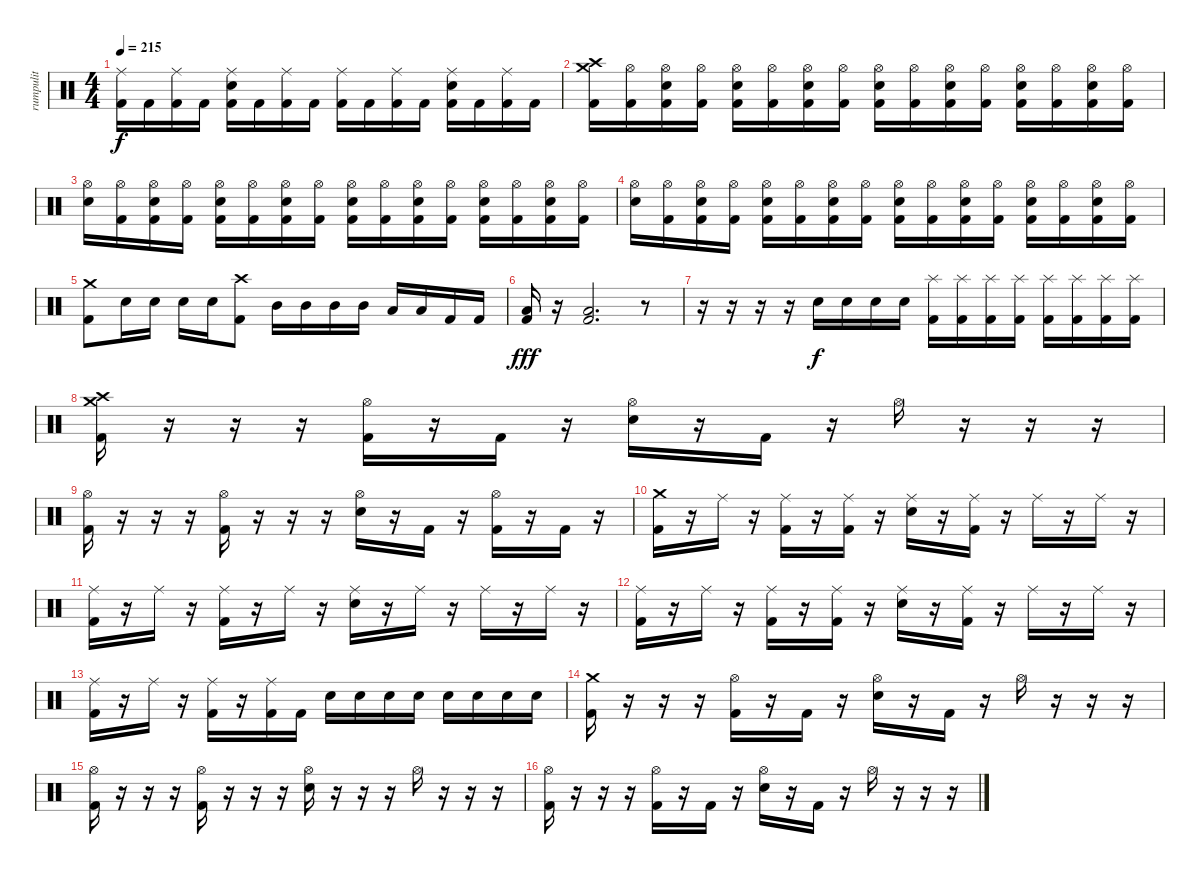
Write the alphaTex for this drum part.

\track ("rumpulit" "rumpulit") {instrument percussion}
\staff {score}
\articulation defaults
\ts (4 4)
\tempo 215
\clef neutral
\ks c
("Ride (middle)" "Kick (hit) 2").16{dy f} "Kick (hit) 2".16 ("Ride (middle)" "Kick (hit) 2").16 "Kick (hit) 2".16 ("Ride (middle)" "Kick (hit) 2" "Electric Snare (hit)").16 "Kick (hit) 2".16 ("Ride (middle)" "Kick (hit) 2").16 "Kick (hit) 2".16 ("Ride (middle)" "Kick (hit) 2").16 "Kick (hit) 2".16 ("Ride (middle)" "Kick (hit) 2").16 "Kick (hit) 2".16 ("Ride (middle)" "Kick (hit) 2" "Electric Snare (hit)").16 "Kick (hit) 2".16 ("Ride (middle)" "Kick (hit) 2").16 "Kick (hit) 2".16 |
("Crash high (hit)" "Kick (hit) 2" "Crash medium (hit)").16 ("Hi-Hat (open)" "Kick (hit) 2").16 ("Hi-Hat (open)" "Electric Snare (hit)" "Kick (hit) 2").16 ("Hi-Hat (open)" "Kick (hit) 2").16 ("Hi-Hat (open)" "Electric Snare (hit)" "Kick (hit) 2").16 ("Hi-Hat (open)" "Kick (hit) 2").16 ("Hi-Hat (open)" "Electric Snare (hit)" "Kick (hit) 2").16 ("Hi-Hat (open)" "Kick (hit) 2").16 ("Hi-Hat (open)" "Electric Snare (hit)" "Kick (hit) 2").16 ("Hi-Hat (open)" "Kick (hit) 2").16 ("Hi-Hat (open)" "Electric Snare (hit)" "Kick (hit) 2").16 ("Hi-Hat (open)" "Kick (hit) 2").16 ("Hi-Hat (open)" "Electric Snare (hit)" "Kick (hit) 2").16 ("Hi-Hat (open)" "Kick (hit) 2").16 ("Hi-Hat (open)" "Electric Snare (hit)" "Kick (hit) 2").16 ("Hi-Hat (open)" "Kick (hit) 2").16 |
("Hi-Hat (open)" "Electric Snare (hit)").16 ("Hi-Hat (open)" "Kick (hit) 2").16 ("Hi-Hat (open)" "Electric Snare (hit)" "Kick (hit) 2").16 ("Hi-Hat (open)" "Kick (hit) 2").16 ("Hi-Hat (open)" "Electric Snare (hit)" "Kick (hit) 2").16 ("Hi-Hat (open)" "Kick (hit) 2").16 ("Hi-Hat (open)" "Electric Snare (hit)" "Kick (hit) 2").16 ("Hi-Hat (open)" "Kick (hit) 2").16 ("Hi-Hat (open)" "Electric Snare (hit)" "Kick (hit) 2").16 ("Hi-Hat (open)" "Kick (hit) 2").16 ("Hi-Hat (open)" "Electric Snare (hit)" "Kick (hit) 2").16 ("Hi-Hat (open)" "Kick (hit) 2").16 ("Hi-Hat (open)" "Electric Snare (hit)" "Kick (hit) 2").16 ("Hi-Hat (open)" "Kick (hit) 2").16 ("Hi-Hat (open)" "Electric Snare (hit)" "Kick (hit) 2").16 ("Hi-Hat (open)" "Kick (hit) 2").16 |
("Hi-Hat (open)" "Electric Snare (hit)").16 ("Hi-Hat (open)" "Kick (hit) 2").16 ("Hi-Hat (open)" "Electric Snare (hit)" "Kick (hit) 2").16 ("Hi-Hat (open)" "Kick (hit) 2").16 ("Hi-Hat (open)" "Electric Snare (hit)" "Kick (hit) 2").16 ("Hi-Hat (open)" "Kick (hit) 2").16 ("Hi-Hat (open)" "Electric Snare (hit)" "Kick (hit) 2").16 ("Hi-Hat (open)" "Kick (hit) 2").16 ("Hi-Hat (open)" "Electric Snare (hit)" "Kick (hit) 2").16 ("Hi-Hat (open)" "Kick (hit) 2").16 ("Hi-Hat (open)" "Electric Snare (hit)" "Kick (hit) 2").16 ("Hi-Hat (open)" "Kick (hit) 2").16 ("Hi-Hat (open)" "Electric Snare (hit)" "Kick (hit) 2").16 ("Hi-Hat (open)" "Kick (hit) 2").16 ("Hi-Hat (open)" "Electric Snare (hit)" "Kick (hit) 2").16 ("Hi-Hat (open)" "Kick (hit) 2").16 |
("Crash medium (hit)" "Kick (hit) 2").8 "Electric Snare (hit)".16 "Electric Snare (hit)".16 "Electric Snare (hit)".16 "Electric Snare (hit)".16 ("Crash high (hit)" "Kick (hit) 2").8 "Mid Tom (hit)".16 "Mid Tom (hit)".16 "Mid Tom (hit)".16 "Mid Tom (hit)".16 "Low Tom (hit)".16 "Low Tom (hit)".16 "Kick (hit) 2".16 "Kick (hit) 2".16 |
("Low Floor Tom (hit)" "Kick (hit) 2").16{dy fff} r.16 ("Low Floor Tom (hit)" "Kick (hit) 2").2{d} r.8 |
r.16 r.16 r.16 r.16 "Electric Snare (hit)".16{dy f} "Electric Snare (hit)".16 "Electric Snare (hit)".16 "Electric Snare (hit)".16 ("Splash (hit)" "Kick (hit) 2").16 ("Splash (hit)" "Kick (hit) 2").16 ("Splash (hit)" "Kick (hit) 2").16 ("Splash (hit)" "Kick (hit) 2").16 ("Splash (hit)" "Kick (hit) 2").16 ("Splash (hit)" "Kick (hit) 2").16 ("Splash (hit)" "Kick (hit) 2").16 ("Splash (hit)" "Kick (hit) 2").16 |
("Crash medium (hit)" "Kick (hit) 2" "Crash high (hit)").16 r.16 r.16 r.16 ("Hi-Hat (open)" "Kick (hit) 2").16 r.16 "Kick (hit) 2".16 r.16 ("Hi-Hat (open)" "Electric Snare (hit)").16 r.16 "Kick (hit) 2".16 r.16 "Hi-Hat (open)".16 r.16 r.16 r.16 |
("Hi-Hat (open)" "Kick (hit) 2").16 r.16 r.16 r.16 ("Hi-Hat (open)" "Kick (hit) 2").16 r.16 r.16 r.16 ("Hi-Hat (open)" "Electric Snare (hit)").16 r.16 "Kick (hit) 2".16 r.16 ("Hi-Hat (open)" "Kick (hit) 2").16 r.16 "Kick (hit) 2".16 r.16 |
("Crash medium (hit)" "Kick (hit) 2").16 r.16 "Ride (middle)".16 r.16 ("Ride (middle)" "Kick (hit) 2").16 r.16 ("Ride (middle)" "Kick (hit) 2").16 r.16 ("Ride (middle)" "Electric Snare (hit)").16 r.16 ("Ride (middle)" "Kick (hit) 2").16 r.16 "Ride (middle)".16 r.16 "Ride (middle)".16 r.16 |
("Ride (middle)" "Kick (hit) 2").16 r.16 "Ride (middle)".16 r.16 ("Ride (middle)" "Kick (hit) 2").16 r.16 "Ride (middle)".16 r.16 ("Ride (middle)" "Electric Snare (hit)").16 r.16 "Ride (middle)".16 r.16 "Ride (middle)".16 r.16 "Ride (middle)".16 r.16 |
("Ride (middle)" "Kick (hit) 2").16 r.16 "Ride (middle)".16 r.16 ("Ride (middle)" "Kick (hit) 2").16 r.16 ("Ride (middle)" "Kick (hit) 2").16 r.16 ("Ride (middle)" "Electric Snare (hit)").16 r.16 ("Ride (middle)" "Kick (hit) 2").16 r.16 "Ride (middle)".16 r.16 "Ride (middle)".16 r.16 |
("Ride (middle)" "Kick (hit) 2").16 r.16 "Ride (middle)".16 r.16 ("Ride (middle)" "Kick (hit) 2").16 r.16 ("Ride (middle)" "Kick (hit) 2").16 "Kick (hit) 2".16 "Electric Snare (hit)".16 "Electric Snare (hit)".16 "Electric Snare (hit)".16 "Electric Snare (hit)".16 "Electric Snare (hit)".16 "Electric Snare (hit)".16 "Electric Snare (hit)".16 "Electric Snare (hit)".16 |
("Crash medium (hit)" "Kick (hit) 2").16 r.16 r.16 r.16 ("Hi-Hat (open)" "Kick (hit) 2").16 r.16 "Kick (hit) 2".16 r.16 ("Hi-Hat (open)" "Electric Snare (hit)").16 r.16 "Kick (hit) 2".16 r.16 "Hi-Hat (open)".16 r.16 r.16 r.16 |
("Hi-Hat (open)" "Kick (hit) 2").16 r.16 r.16 r.16 ("Hi-Hat (open)" "Kick (hit) 2").16 r.16 r.16 r.16 ("Hi-Hat (open)" "Electric Snare (hit)").16 r.16 r.16 r.16 "Hi-Hat (open)".16 r.16 r.16 r.16 |
("Hi-Hat (open)" "Kick (hit) 2").16 r.16 r.16 r.16 ("Hi-Hat (open)" "Kick (hit) 2").16 r.16 "Kick (hit) 2".16 r.16 ("Hi-Hat (open)" "Electric Snare (hit)").16 r.16 "Kick (hit) 2".16 r.16 "Hi-Hat (open)".16 r.16 r.16 r.16
